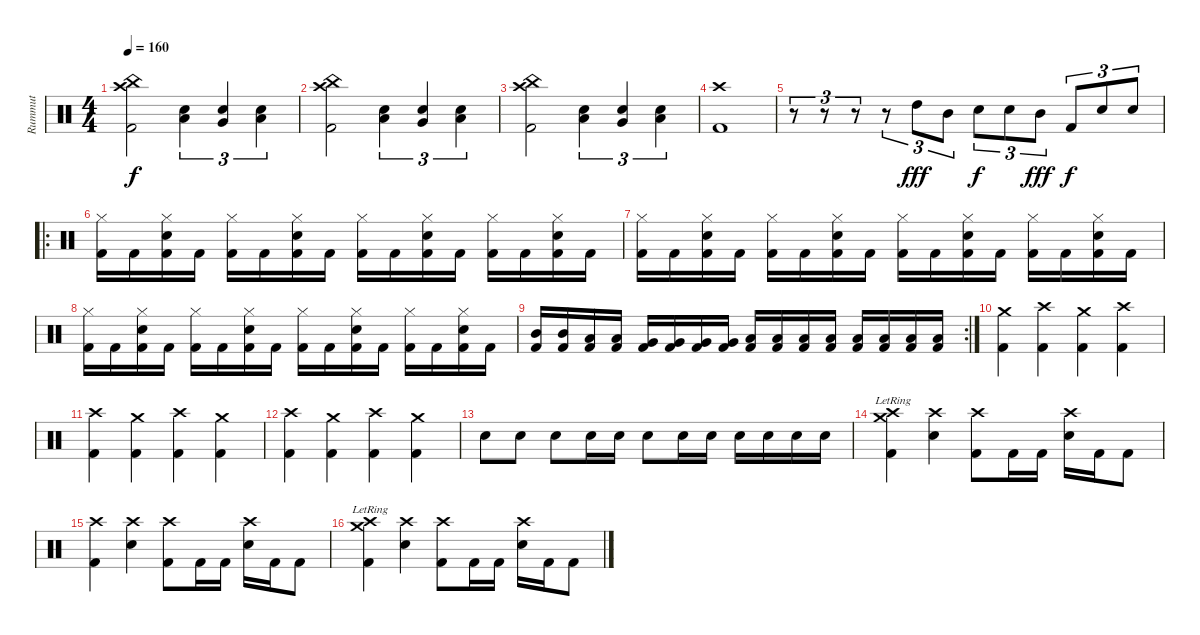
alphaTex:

\track ("Rummut" "Rummut") {instrument percussion}
\staff {score}
\articulation defaults
\ts (4 4)
\tempo 160
\clef neutral
\ks c
("China (hit)" "Crash high (hit)" "Kick (hit) 2").2{dy f} ("Low Tom (hit)" "Snare (hit) 2").4{tu (3 2)} ("Very Low Tom (hit)" "Snare (hit) 2").4{tu (3 2)} ("Low Floor Tom (hit)" "Snare (hit) 2").4{tu (3 2)} |
("China (hit)" "Crash high (hit)" "Kick (hit) 2").2 ("Low Tom (hit)" "Snare (hit) 2").4{tu (3 2)} ("Very Low Tom (hit)" "Snare (hit) 2").4{tu (3 2)} ("Low Floor Tom (hit)" "Snare (hit) 2").4{tu (3 2)} |
("China (hit)" "Crash high (hit)" "Kick (hit) 2").2 ("Low Tom (hit)" "Snare (hit) 2").4{tu (3 2)} ("Very Low Tom (hit)" "Snare (hit) 2").4{tu (3 2)} ("Low Floor Tom (hit)" "Snare (hit) 2").4{tu (3 2)} |
("Crash high (hit)" "Kick (hit) 2").1 |
r.8{tu (3 2)} r.8{tu (3 2)} r.8{tu (3 2)} r.8{tu (3 2)} "High Tom (hit)".8{tu (3 2) dy fff} "Mid Tom (hit)".8{tu (3 2)} "Snare (hit) 2".8{tu (3 2) dy f} "Snare (hit) 2".8{tu (3 2)} "Mid Tom (hit)".8{tu (3 2) dy fff} "Kick (hit) 2".8{tu (3 2) dy f} "Snare (hit) 2".8{tu (3 2)} "Snare (hit) 2".8{tu (3 2)} |
\ro
("Hi-Hat (closed)" "Kick (hit) 2").16 "Kick (hit) 2".16 ("Hi-Hat (closed)" "Snare (hit) 2" "Kick (hit) 2").16 "Kick (hit) 2".16 ("Hi-Hat (closed)" "Kick (hit) 2").16 "Kick (hit) 2".16 ("Hi-Hat (closed)" "Snare (hit) 2" "Kick (hit) 2").16 "Kick (hit) 2".16 ("Hi-Hat (closed)" "Kick (hit) 2").16 "Kick (hit) 2".16 ("Hi-Hat (closed)" "Snare (hit) 2" "Kick (hit) 2").16 "Kick (hit) 2".16 ("Hi-Hat (closed)" "Kick (hit) 2").16 "Kick (hit) 2".16 ("Hi-Hat (closed)" "Snare (hit) 2" "Kick (hit) 2").16 "Kick (hit) 2".16 |
("Hi-Hat (closed)" "Kick (hit) 2").16 "Kick (hit) 2".16 ("Hi-Hat (closed)" "Snare (hit) 2" "Kick (hit) 2").16 "Kick (hit) 2".16 ("Hi-Hat (closed)" "Kick (hit) 2").16 "Kick (hit) 2".16 ("Hi-Hat (closed)" "Snare (hit) 2" "Kick (hit) 2").16 "Kick (hit) 2".16 ("Hi-Hat (closed)" "Kick (hit) 2").16 "Kick (hit) 2".16 ("Hi-Hat (closed)" "Snare (hit) 2" "Kick (hit) 2").16 "Kick (hit) 2".16 ("Hi-Hat (closed)" "Kick (hit) 2").16 "Kick (hit) 2".16 ("Hi-Hat (closed)" "Snare (hit) 2" "Kick (hit) 2").16 "Kick (hit) 2".16 |
("Hi-Hat (closed)" "Kick (hit) 2").16 "Kick (hit) 2".16 ("Hi-Hat (closed)" "Snare (hit) 2" "Kick (hit) 2").16 "Kick (hit) 2".16 ("Hi-Hat (closed)" "Kick (hit) 2").16 "Kick (hit) 2".16 ("Hi-Hat (closed)" "Snare (hit) 2" "Kick (hit) 2").16 "Kick (hit) 2".16 ("Hi-Hat (closed)" "Kick (hit) 2").16 "Kick (hit) 2".16 ("Hi-Hat (closed)" "Snare (hit) 2" "Kick (hit) 2").16 "Kick (hit) 2".16 ("Hi-Hat (closed)" "Kick (hit) 2").16 "Kick (hit) 2".16 ("Hi-Hat (closed)" "Snare (hit) 2" "Kick (hit) 2").16 "Kick (hit) 2".16 |
\rc 2
("Mid Tom (hit)" "Kick (hit) 2").16 ("Mid Tom (hit)" "Kick (hit) 2").16 ("Low Tom (hit)" "Kick (hit) 2").16 ("Low Tom (hit)" "Kick (hit) 2").16 ("Very Low Tom (hit)" "Kick (hit) 2").16 ("Very Low Tom (hit)" "Kick (hit) 2").16 ("Very Low Tom (hit)" "Kick (hit) 2").16 ("Very Low Tom (hit)" "Kick (hit) 2").16 ("Low Floor Tom (hit)" "Kick (hit) 2").16 ("Low Floor Tom (hit)" "Kick (hit) 2").16 ("Low Floor Tom (hit)" "Kick (hit) 2").16 ("Low Floor Tom (hit)" "Kick (hit) 2").16 ("Low Floor Tom (hit)" "Kick (hit) 2").16 ("Low Floor Tom (hit)" "Kick (hit) 2").16 ("Low Floor Tom (hit)" "Kick (hit) 2").16 ("Low Floor Tom (hit)" "Kick (hit) 2").16 |
("Crash medium (hit)" "Kick (hit) 2").4 ("Crash high (hit)" "Kick (hit) 2").4 ("Crash medium (hit)" "Kick (hit) 2").4 ("Crash high (hit)" "Kick (hit) 2").4 |
("Crash high (hit)" "Kick (hit) 2").4 ("Crash medium (hit)" "Kick (hit) 2").4 ("Crash high (hit)" "Kick (hit) 2").4 ("Crash medium (hit)" "Kick (hit) 2").4 |
("Crash high (hit)" "Kick (hit) 2").4 ("Crash medium (hit)" "Kick (hit) 2").4 ("Crash high (hit)" "Kick (hit) 2").4 ("Crash medium (hit)" "Kick (hit) 2").4 |
"Snare (hit) 2".8 "Snare (hit) 2".8 "Snare (hit) 2".8 "Snare (hit) 2".16 "Snare (hit) 2".16 "Snare (hit) 2".8 "Snare (hit) 2".16 "Snare (hit) 2".16 "Snare (hit) 2".16 "Snare (hit) 2".16 "Snare (hit) 2".16 "Snare (hit) 2".16 |
("Crash high (hit)" "Crash medium (hit)"{lr} "Kick (hit) 2").4 ("Crash high (hit)" "Snare (hit) 2").4 ("Crash high (hit)" "Kick (hit) 2").8 "Kick (hit) 2".16 "Kick (hit) 2".16 ("Crash high (hit)" "Snare (hit) 2").16 "Kick (hit) 2".16 "Kick (hit) 2".8 |
("Crash high (hit)" "Kick (hit) 2").4 ("Crash high (hit)" "Snare (hit) 2").4 ("Crash high (hit)" "Kick (hit) 2").8 "Kick (hit) 2".16 "Kick (hit) 2".16 ("Crash high (hit)" "Snare (hit) 2").16 "Kick (hit) 2".16 "Kick (hit) 2".8 |
("Crash high (hit)" "Crash medium (hit)"{lr} "Kick (hit) 2").4 ("Crash high (hit)" "Snare (hit) 2").4 ("Crash high (hit)" "Kick (hit) 2").8 "Kick (hit) 2".16 "Kick (hit) 2".16 ("Crash high (hit)" "Snare (hit) 2").16 "Kick (hit) 2".16 "Kick (hit) 2".8
